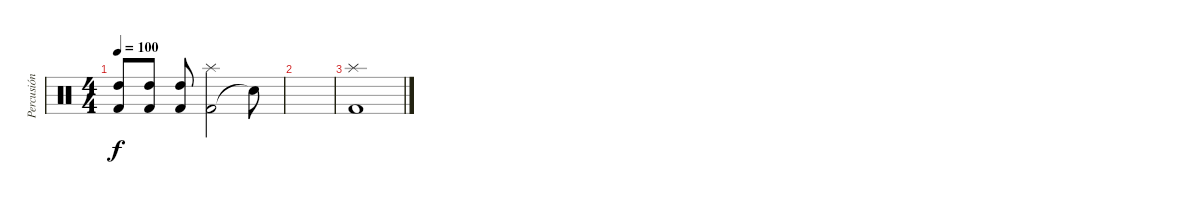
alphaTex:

\track ("Percusión" "Percusión") {instrument percussion}
\staff {score}
\articulation defaults
\ts (4 4)
\tempo 100
\clef neutral
\ks c
("Kick (hit) 2" "High Tom (hit)").8{dy f} ("Kick (hit) 2" "High Tom (hit)").8 ("Kick (hit) 2" "High Tom (hit)").8 ("Kick (hit) 2" "Splash (hit)").2 "Snare (hit)"{t}.8 |
|
("Kick (hit) 2" "Splash (hit)").1
